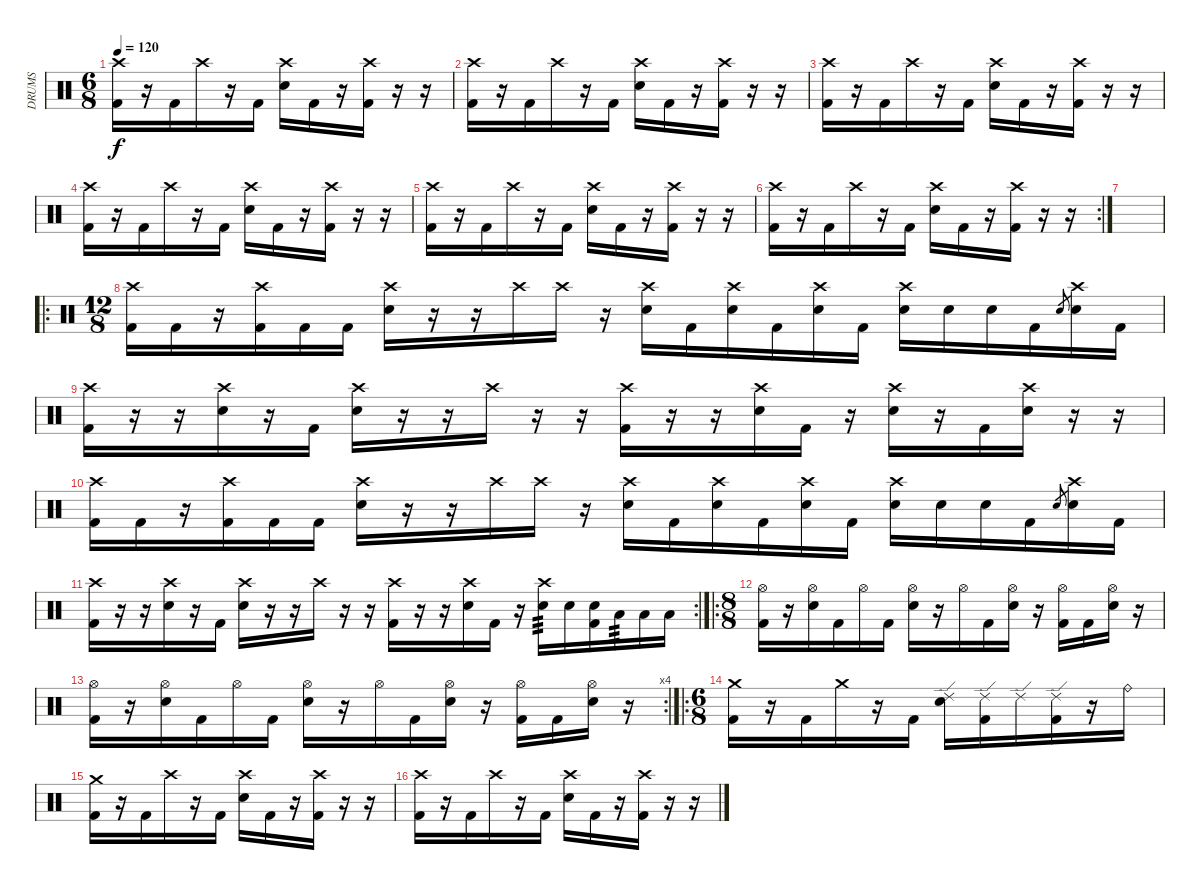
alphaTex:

\track ("DRUMS" "DRUMS") {mute instrument percussion}
\staff {score}
\articulation defaults
\ts (6 8)
\tempo 120
\clef neutral
\ks c
("Crash high (hit)" "Kick (hit) 2").16{dy f} r.16 "Kick (hit) 2".16 "Crash high (hit)".16 r.16 "Kick (hit) 2".16 ("Crash high (hit)" "Electric Snare (hit)").16 "Kick (hit) 2".16 r.16 ("Crash high (hit)" "Kick (hit) 2").16 r.16 r.16 |
("Crash high (hit)" "Kick (hit) 2").16 r.16 "Kick (hit) 2".16 "Crash high (hit)".16 r.16 "Kick (hit) 2".16 ("Crash high (hit)" "Electric Snare (hit)").16 "Kick (hit) 2".16 r.16 ("Crash high (hit)" "Kick (hit) 2").16 r.16 r.16 |
("Crash high (hit)" "Kick (hit) 2").16 r.16 "Kick (hit) 2".16 "Crash high (hit)".16 r.16 "Kick (hit) 2".16 ("Crash high (hit)" "Electric Snare (hit)").16 "Kick (hit) 2".16 r.16 ("Crash high (hit)" "Kick (hit) 2").16 r.16 r.16 |
("Crash high (hit)" "Kick (hit) 2").16 r.16 "Kick (hit) 2".16 "Crash high (hit)".16 r.16 "Kick (hit) 2".16 ("Crash high (hit)" "Electric Snare (hit)").16 "Kick (hit) 2".16 r.16 ("Crash high (hit)" "Kick (hit) 2").16 r.16 r.16 |
("Crash high (hit)" "Kick (hit) 2").16 r.16 "Kick (hit) 2".16 "Crash high (hit)".16 r.16 "Kick (hit) 2".16 ("Crash high (hit)" "Electric Snare (hit)").16 "Kick (hit) 2".16 r.16 ("Crash high (hit)" "Kick (hit) 2").16 r.16 r.16 |
\rc 2
("Crash high (hit)" "Kick (hit) 2").16 r.16 "Kick (hit) 2".16 "Crash high (hit)".16 r.16 "Kick (hit) 2".16 ("Crash high (hit)" "Electric Snare (hit)").16 "Kick (hit) 2".16 r.16 ("Crash high (hit)" "Kick (hit) 2").16 r.16 r.16 |
|
\ro
\ts (12 8)
("Crash high (hit)" "Kick (hit) 2").16 "Kick (hit) 2".16 r.16 ("Crash high (hit)" "Kick (hit) 2").16 "Kick (hit) 2".16 "Kick (hit) 2".16 ("Crash high (hit)" "Electric Snare (hit)").16 r.16 r.16 "Crash high (hit)".16 "Crash high (hit)".16 r.16 ("Crash high (hit)" "Electric Snare (hit)").16 "Kick (hit) 2".16 ("Crash high (hit)" "Electric Snare (hit)").16 "Kick (hit) 2".16 ("Crash high (hit)" "Electric Snare (hit)").16 "Kick (hit) 2".16 ("Crash high (hit)" "Electric Snare (hit)").16 "Electric Snare (hit)".16 "Electric Snare (hit)".16 "Kick (hit) 2".16 "Electric Snare (hit)"{h}.8{gr} ("Crash high (hit)" "Electric Snare (hit)").16 "Kick (hit) 2".16 |
("Crash high (hit)" "Kick (hit) 2").16 r.16 r.16 ("Crash high (hit)" "Electric Snare (hit)").16 r.16 "Kick (hit) 2".16 ("Crash high (hit)" "Electric Snare (hit)").16 r.16 r.16 "Crash high (hit)".16 r.16 r.16 ("Crash high (hit)" "Kick (hit) 2").16 r.16 r.16 ("Crash high (hit)" "Electric Snare (hit)").16 "Kick (hit) 2".16 r.16 ("Crash high (hit)" "Electric Snare (hit)").16 r.16 "Kick (hit) 2".16 ("Crash high (hit)" "Electric Snare (hit)").16 r.16 r.16 |
("Crash high (hit)" "Kick (hit) 2").16 "Kick (hit) 2".16 r.16 ("Crash high (hit)" "Kick (hit) 2").16 "Kick (hit) 2".16 "Kick (hit) 2".16 ("Crash high (hit)" "Electric Snare (hit)").16 r.16 r.16 "Crash high (hit)".16 "Crash high (hit)".16 r.16 ("Crash high (hit)" "Electric Snare (hit)").16 "Kick (hit) 2".16 ("Crash high (hit)" "Electric Snare (hit)").16 "Kick (hit) 2".16 ("Crash high (hit)" "Electric Snare (hit)").16 "Kick (hit) 2".16 ("Crash high (hit)" "Electric Snare (hit)").16 "Electric Snare (hit)".16 "Electric Snare (hit)".16 "Kick (hit) 2".16 "Electric Snare (hit)"{h}.8{gr} ("Crash high (hit)" "Electric Snare (hit)").16 "Kick (hit) 2".16 |
\rc 2
("Crash high (hit)" "Kick (hit) 2").16 r.16 r.16 ("Crash high (hit)" "Electric Snare (hit)").16 r.16 "Kick (hit) 2".16 ("Crash high (hit)" "Electric Snare (hit)").16 r.16 r.16 "Crash high (hit)".16 r.16 r.16 ("Crash high (hit)" "Kick (hit) 2").16 r.16 r.16 ("Crash high (hit)" "Electric Snare (hit)").16 "Kick (hit) 2".16 r.16 ("Crash high (hit)" "Electric Snare (hit)").16{tp 3} "Electric Snare (hit)".16 ("Electric Snare (hit)" "Kick (hit) 2").16 "Low Tom (hit)".16{tp 3} "Low Tom (hit)".16 "Low Tom (hit)".16 |
\ro
\ts (8 8)
("Hi-Hat (open)" "Kick (hit) 2").16 r.16 ("Hi-Hat (open)" "Electric Snare (hit)").16 "Kick (hit) 2".16 "Hi-Hat (open)".16 "Kick (hit) 2".16 ("Hi-Hat (open)" "Electric Snare (hit)").16 r.16 "Hi-Hat (open)".16 "Kick (hit) 2".16 ("Hi-Hat (open)" "Electric Snare (hit)").16 r.16 ("Hi-Hat (open)" "Kick (hit) 2").16 "Kick (hit) 2".16 ("Hi-Hat (open)" "Electric Snare (hit)").16 r.16 |
\rc 4
("Hi-Hat (open)" "Kick (hit) 2").16 r.16 ("Hi-Hat (open)" "Electric Snare (hit)").16 "Kick (hit) 2".16 "Hi-Hat (open)".16 "Kick (hit) 2".16 ("Hi-Hat (open)" "Electric Snare (hit)").16 r.16 "Hi-Hat (open)".16 "Kick (hit) 2".16 ("Hi-Hat (open)" "Electric Snare (hit)").16 r.16 ("Hi-Hat (open)" "Kick (hit) 2").16 "Kick (hit) 2".16 ("Hi-Hat (open)" "Electric Snare (hit)").16 r.16 |
\ro
\ts (6 8)
("Crash medium (hit)" "Kick (hit) 2").16 r.16 "Kick (hit) 2".16 "Crash medium (hit)".16 r.16 "Kick (hit) 2".16 ("Ride (edge) 2" "Electric Snare (hit)").16 ("Ride (edge) 2" "Kick (hit) 2").16 "Ride (edge) 2".16 ("Ride (edge) 2" "Kick (hit) 2").16 r.16 "Ride (bell)".16 |
("Crash medium (hit)" "Kick (hit) 2").16 r.16 "Kick (hit) 2".16 "Crash high (hit)".16 r.16 "Kick (hit) 2".16 ("Crash high (hit)" "Electric Snare (hit)").16 "Kick (hit) 2".16 r.16 ("Crash high (hit)" "Kick (hit) 2").16 r.16 r.16 |
("Crash high (hit)" "Kick (hit) 2").16 r.16 "Kick (hit) 2".16 "Crash high (hit)".16 r.16 "Kick (hit) 2".16 ("Crash high (hit)" "Electric Snare (hit)").16 "Kick (hit) 2".16 r.16 ("Crash high (hit)" "Kick (hit) 2").16 r.16 r.16
